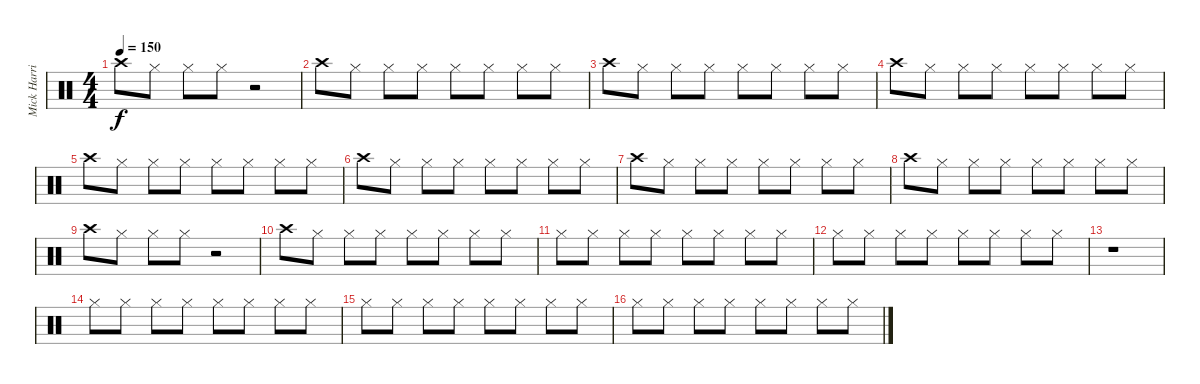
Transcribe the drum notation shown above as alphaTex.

\track ("Mick Harris" "Mick Harri") {instrument percussion}
\staff {score}
\articulation defaults
\ts (4 4)
\tempo 150
\clef neutral
\ks c "Crash high (hit)".8{dy f beam Down} "Hi-Hat (closed)".8{beam Down} "Hi-Hat (closed)".8{beam Down} "Hi-Hat (closed)".8{beam Down}
r.2{beam Up} |
"Crash high (hit)".8{beam Down} "Hi-Hat (closed)".8{beam Down} "Hi-Hat (closed)".8{beam Down} "Hi-Hat (closed)".8{beam Down} "Hi-Hat (closed)".8{beam Down} "Hi-Hat (closed)".8{beam Down} "Hi-Hat (closed)".8{beam Down} "Hi-Hat (closed)".8{beam Down} |
"Crash high (hit)".8{beam Down} "Hi-Hat (closed)".8{beam Down} "Hi-Hat (closed)".8{beam Down} "Hi-Hat (closed)".8{beam Down} "Hi-Hat (closed)".8{beam Down} "Hi-Hat (closed)".8{beam Down} "Hi-Hat (closed)".8{beam Down} "Hi-Hat (closed)".8{beam Down} |
"Crash high (hit)".8{beam Down} "Hi-Hat (closed)".8{beam Down} "Hi-Hat (closed)".8{beam Down} "Hi-Hat (closed)".8{beam Down} "Hi-Hat (closed)".8{beam Down} "Hi-Hat (closed)".8{beam Down} "Hi-Hat (closed)".8{beam Down} "Hi-Hat (closed)".8{beam Down} |
"Crash high (hit)".8{beam Down} "Hi-Hat (closed)".8{beam Down} "Hi-Hat (closed)".8{beam Down} "Hi-Hat (closed)".8{beam Down} "Hi-Hat (closed)".8{beam Down} "Hi-Hat (closed)".8{beam Down} "Hi-Hat (closed)".8{beam Down} "Hi-Hat (closed)".8{beam Down} |
"Crash high (hit)".8{beam Down} "Hi-Hat (closed)".8{beam Down} "Hi-Hat (closed)".8{beam Down} "Hi-Hat (closed)".8{beam Down} "Hi-Hat (closed)".8{beam Down} "Hi-Hat (closed)".8{beam Down} "Hi-Hat (closed)".8{beam Down} "Hi-Hat (closed)".8{beam Down} |
"Crash high (hit)".8{beam Down} "Hi-Hat (closed)".8{beam Down} "Hi-Hat (closed)".8{beam Down} "Hi-Hat (closed)".8{beam Down} "Hi-Hat (closed)".8{beam Down} "Hi-Hat (closed)".8{beam Down} "Hi-Hat (closed)".8{beam Down} "Hi-Hat (closed)".8{beam Down} |
"Crash high (hit)".8{beam Down} "Hi-Hat (closed)".8{beam Down} "Hi-Hat (closed)".8{beam Down} "Hi-Hat (closed)".8{beam Down} "Hi-Hat (closed)".8{beam Down} "Hi-Hat (closed)".8{beam Down} "Hi-Hat (closed)".8{beam Down} "Hi-Hat (closed)".8{beam Down} |
"Crash high (hit)".8{beam Down} "Hi-Hat (closed)".8{beam Down} "Hi-Hat (closed)".8{beam Down} "Hi-Hat (closed)".8{beam Down} r.2{beam Up} |
"Crash high (hit)".8 "Hi-Hat (closed)".8 "Hi-Hat (closed)".8 "Hi-Hat (closed)".8 "Hi-Hat (closed)".8 "Hi-Hat (closed)".8 "Hi-Hat (closed)".8 "Hi-Hat (closed)".8 |
"Hi-Hat (closed)".8 "Hi-Hat (closed)".8 "Hi-Hat (closed)".8 "Hi-Hat (closed)".8 "Hi-Hat (closed)".8 "Hi-Hat (closed)".8 "Hi-Hat (closed)".8 "Hi-Hat (closed)".8 |
"Hi-Hat (closed)".8 "Hi-Hat (closed)".8 "Hi-Hat (closed)".8 "Hi-Hat (closed)".8 "Hi-Hat (closed)".8 "Hi-Hat (closed)".8 "Hi-Hat (closed)".8 "Hi-Hat (closed)".8 |
r.1 |
"Hi-Hat (closed)".8 "Hi-Hat (closed)".8 "Hi-Hat (closed)".8 "Hi-Hat (closed)".8 "Hi-Hat (closed)".8 "Hi-Hat (closed)".8 "Hi-Hat (closed)".8 "Hi-Hat (closed)".8 |
"Hi-Hat (closed)".8 "Hi-Hat (closed)".8 "Hi-Hat (closed)".8 "Hi-Hat (closed)".8 "Hi-Hat (closed)".8 "Hi-Hat (closed)".8 "Hi-Hat (closed)".8 "Hi-Hat (closed)".8 |
"Hi-Hat (closed)".8 "Hi-Hat (closed)".8 "Hi-Hat (closed)".8 "Hi-Hat (closed)".8 "Hi-Hat (closed)".8 "Hi-Hat (closed)".8 "Hi-Hat (closed)".8 "Hi-Hat (closed)".8
